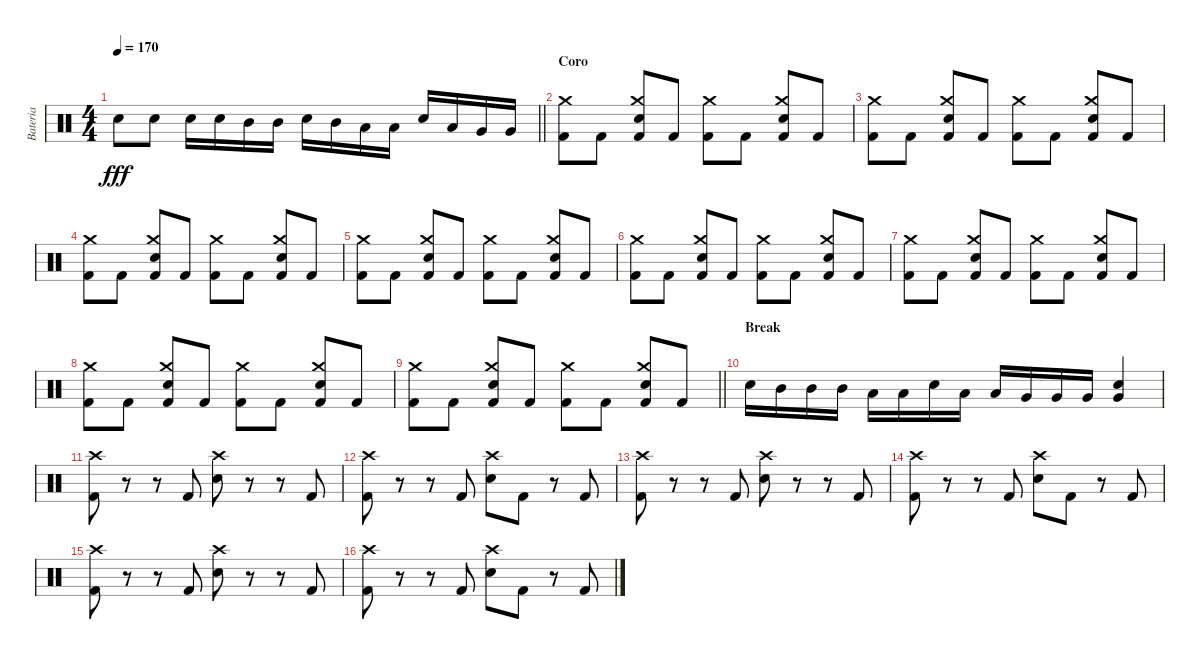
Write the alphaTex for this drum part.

\track ("Bateria" "Bateria") {instrument percussion}
\staff {score}
\articulation defaults
\ts (4 4)
\tempo 170
\clef neutral
\barLineRight lightlight
\ks c "Electric Snare (hit)".8{dy fff} "Electric Snare (hit)".8 "Electric Snare (hit)".16 "Electric Snare (hit)".16 "Mid Tom (hit)".16 "Mid Tom (hit)".16 "Electric Snare (hit)".16 "Mid Tom (hit)".16 "Low Tom (hit)".16 "Low Tom (hit)".16 "Electric Snare (hit)".16 "Low Tom (hit)".16 "Very Low Tom (hit)".16 "Very Low Tom (hit)".16
|
\section ("" "Coro")
("Crash medium (hit)" "Kick (hit) 2").8 "Kick (hit) 2".8 ("Crash medium (hit)" "Electric Snare (hit)" "Kick (hit) 2").8 "Kick (hit) 2".8 ("Crash medium (hit)" "Kick (hit) 2").8 "Kick (hit) 2".8 ("Crash medium (hit)" "Electric Snare (hit)" "Kick (hit) 2").8 "Kick (hit) 2".8 |
("Crash medium (hit)" "Kick (hit) 2").8 "Kick (hit) 2".8 ("Crash medium (hit)" "Electric Snare (hit)" "Kick (hit) 2").8 "Kick (hit) 2".8 ("Crash medium (hit)" "Kick (hit) 2").8 "Kick (hit) 2".8 ("Crash medium (hit)" "Electric Snare (hit)" "Kick (hit) 2").8 "Kick (hit) 2".8 |
("Crash medium (hit)" "Kick (hit) 2").8 "Kick (hit) 2".8 ("Crash medium (hit)" "Electric Snare (hit)" "Kick (hit) 2").8 "Kick (hit) 2".8 ("Crash medium (hit)" "Kick (hit) 2").8 "Kick (hit) 2".8 ("Crash medium (hit)" "Electric Snare (hit)" "Kick (hit) 2").8 "Kick (hit) 2".8 |
("Crash medium (hit)" "Kick (hit) 2").8 "Kick (hit) 2".8 ("Crash medium (hit)" "Electric Snare (hit)" "Kick (hit) 2").8 "Kick (hit) 2".8 ("Crash medium (hit)" "Kick (hit) 2").8 "Kick (hit) 2".8 ("Crash medium (hit)" "Electric Snare (hit)" "Kick (hit) 2").8 "Kick (hit) 2".8 |
("Crash medium (hit)" "Kick (hit) 2").8 "Kick (hit) 2".8 ("Crash medium (hit)" "Electric Snare (hit)" "Kick (hit) 2").8 "Kick (hit) 2".8 ("Crash medium (hit)" "Kick (hit) 2").8 "Kick (hit) 2".8 ("Crash medium (hit)" "Electric Snare (hit)" "Kick (hit) 2").8 "Kick (hit) 2".8 |
("Crash medium (hit)" "Kick (hit) 2").8 "Kick (hit) 2".8 ("Crash medium (hit)" "Electric Snare (hit)" "Kick (hit) 2").8 "Kick (hit) 2".8 ("Crash medium (hit)" "Kick (hit) 2").8 "Kick (hit) 2".8 ("Crash medium (hit)" "Electric Snare (hit)" "Kick (hit) 2").8 "Kick (hit) 2".8 |
("Crash medium (hit)" "Kick (hit) 2").8 "Kick (hit) 2".8 ("Crash medium (hit)" "Electric Snare (hit)" "Kick (hit) 2").8 "Kick (hit) 2".8 ("Crash medium (hit)" "Kick (hit) 2").8 "Kick (hit) 2".8 ("Crash medium (hit)" "Electric Snare (hit)" "Kick (hit) 2").8 "Kick (hit) 2".8 |
\barLineRight lightlight
("Crash medium (hit)" "Kick (hit) 2").8 "Kick (hit) 2".8 ("Crash medium (hit)" "Electric Snare (hit)" "Kick (hit) 2").8 "Kick (hit) 2".8 ("Crash medium (hit)" "Kick (hit) 2").8 "Kick (hit) 2".8 ("Crash medium (hit)" "Electric Snare (hit)" "Kick (hit) 2").8 "Kick (hit) 2".8 |
\section ("" "Break")
"Electric Snare (hit)".16 "Mid Tom (hit)".16 "Mid Tom (hit)".16 "Mid Tom (hit)".16 "Low Tom (hit)".16 "Low Tom (hit)".16 "Electric Snare (hit)".16 "Low Tom (hit)".16 "Low Tom (hit)".16 "Very Low Tom (hit)".16 "Very Low Tom (hit)".16 "Very Low Tom (hit)".16 ("Electric Snare (hit)" "Very Low Tom (hit)").4 |
("Crash high (hit)" "Kick (hit) 2").8 r.8 r.8 "Kick (hit) 2".8 ("Crash high (hit)" "Electric Snare (hit)").8 r.8 r.8 "Kick (hit) 2".8 |
("Crash high (hit)" "Kick (hit) 2").8 r.8 r.8 "Kick (hit) 2".8 ("Crash high (hit)" "Electric Snare (hit)").8 "Kick (hit) 2".8 r.8 "Kick (hit) 2".8 |
("Crash high (hit)" "Kick (hit) 2").8 r.8 r.8 "Kick (hit) 2".8 ("Crash high (hit)" "Electric Snare (hit)").8 r.8 r.8 "Kick (hit) 2".8 |
("Crash high (hit)" "Kick (hit) 2").8 r.8 r.8 "Kick (hit) 2".8 ("Crash high (hit)" "Electric Snare (hit)").8 "Kick (hit) 2".8 r.8 "Kick (hit) 2".8 |
("Crash high (hit)" "Kick (hit) 2").8 r.8 r.8 "Kick (hit) 2".8 ("Crash high (hit)" "Electric Snare (hit)").8 r.8 r.8 "Kick (hit) 2".8 |
("Crash high (hit)" "Kick (hit) 2").8 r.8 r.8 "Kick (hit) 2".8 ("Crash high (hit)" "Electric Snare (hit)").8 "Kick (hit) 2".8 r.8 "Kick (hit) 2".8
